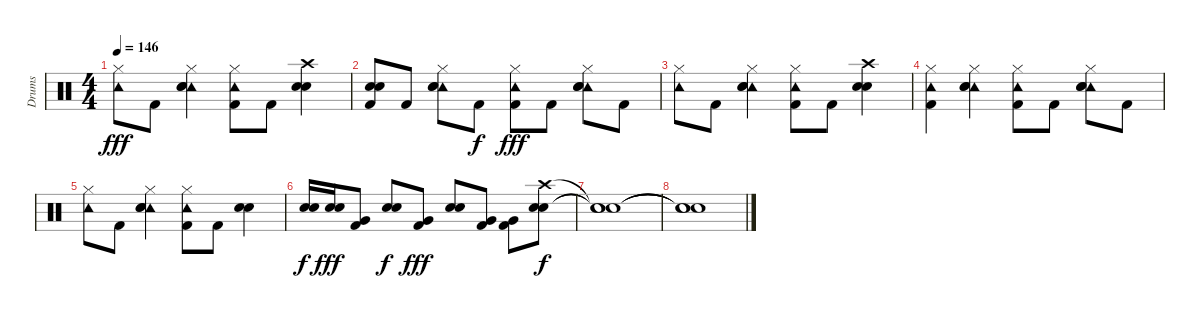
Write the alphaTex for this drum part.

\track ("Drums" "Drums") {instrument percussion}
\staff {score}
\articulation defaults
\ts (4 4)
\tempo 146
\clef neutral
\ks c
("Hi-Hat (closed)" "Tambourine (hit)").8{dy fff} "Kick (hit) 2".8 ("Hi-Hat (closed)" "Tambourine (hit)" "Electric Snare (hit)" "Electric Snare (hit)").4 ("Hi-Hat (closed)" "Tambourine (hit)" "Kick (hit) 2").8 "Kick (hit) 2".8 ("Crash high (hit)" "Electric Snare (hit)" "Electric Snare (hit)").4 |
("Electric Snare (hit)" "Electric Snare (hit)" "Kick (hit) 2").8 "Kick (hit) 2".8 ("Hi-Hat (closed)" "Tambourine (hit)" "Electric Snare (hit)" "Electric Snare (hit)").8 "Kick (hit) 2".8{dy f} ("Hi-Hat (closed)" "Tambourine (hit)" "Kick (hit) 2").8{dy fff} "Kick (hit) 2".8 ("Hi-Hat (closed)" "Tambourine (hit)" "Electric Snare (hit)" "Electric Snare (hit)").8 "Kick (hit) 2".8 |
("Hi-Hat (closed)" "Tambourine (hit)").8 "Kick (hit) 2".8 ("Hi-Hat (closed)" "Tambourine (hit)" "Electric Snare (hit)" "Electric Snare (hit)").4 ("Hi-Hat (closed)" "Tambourine (hit)" "Kick (hit) 2").8 "Kick (hit) 2".8 ("Crash high (hit)" "Electric Snare (hit)" "Electric Snare (hit)").4 |
("Hi-Hat (closed)" "Tambourine (hit)" "Kick (hit) 2").4 ("Hi-Hat (closed)" "Tambourine (hit)" "Electric Snare (hit)" "Electric Snare (hit)").4 ("Hi-Hat (closed)" "Tambourine (hit)" "Kick (hit) 2").8 "Kick (hit) 2".8 ("Hi-Hat (closed)" "Tambourine (hit)" "Electric Snare (hit)" "Electric Snare (hit)").8 "Kick (hit) 2".8 |
("Hi-Hat (closed)" "Tambourine (hit)").8 "Kick (hit) 2".8 ("Hi-Hat (closed)" "Tambourine (hit)" "Electric Snare (hit)" "Electric Snare (hit)").4 ("Hi-Hat (closed)" "Tambourine (hit)" "Kick (hit) 2").8 "Kick (hit) 2".8 ("Electric Snare (hit)" "Electric Snare (hit)").4 |
("Electric Snare (hit)" "Electric Snare (hit)").16{dy f} ("Electric Snare (hit)" "Electric Snare (hit)").16{dy fff} ("Very Low Tom (hit)" "Kick (hit) 2").8 ("Electric Snare (hit)" "Electric Snare (hit)").8{dy f} ("Very Low Tom (hit)" "Kick (hit) 2").8{dy fff} ("Electric Snare (hit)" "Electric Snare (hit)").8 ("Very Low Tom (hit)" "Kick (hit) 2").8 ("Very Low Tom (hit)" "Kick (hit) 2").8 ("Crash high (hit)" "Electric Snare (hit)" "Electric Snare (hit)").8{dy f} |
("Snare (hit)"{t} "Snare (hit)"{t} "Snare (hit)"{t}).1 |
("Snare (hit)"{t} "Snare (hit)"{t} "Snare (hit)"{t}).1
